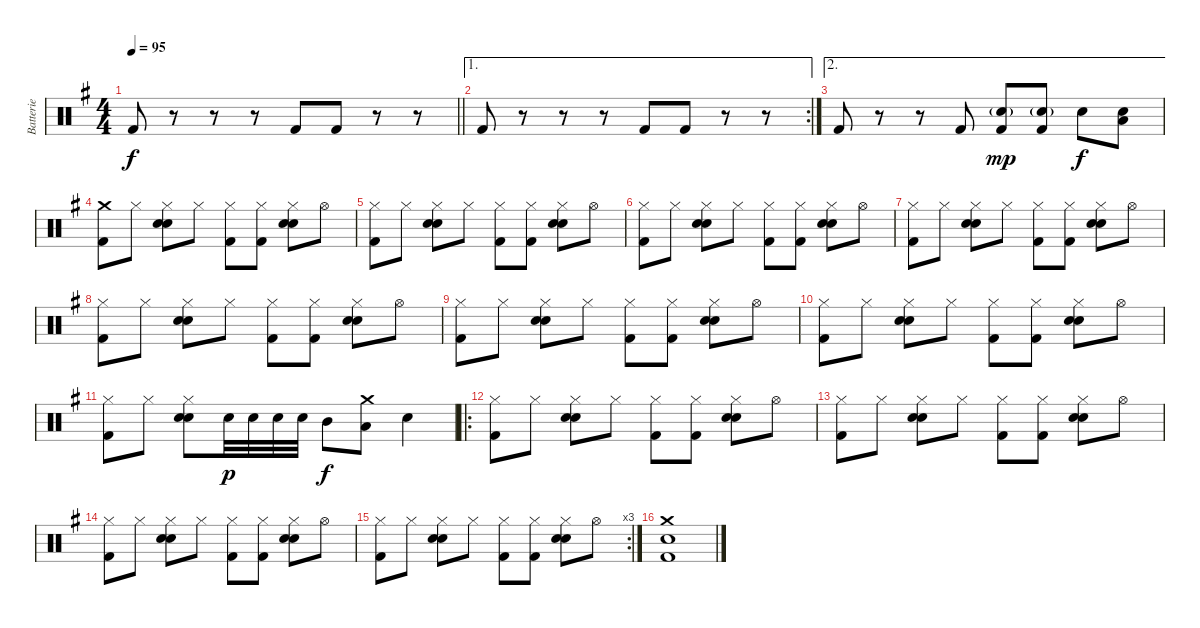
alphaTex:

\track ("Batterie" "Batterie") {instrument percussion}
\staff {score}
\articulation defaults
\ts (4 4)
\tempo 95
\clef neutral
\barLineRight lightlight
\ks g "Kick (hit) 2".8{dy f}
r.8 r.8 r.8 "Kick (hit) 2".8 "Kick (hit) 2".8 r.8 r.8 |
\ae 1
\rc 2 "Kick (hit) 2".8
r.8 r.8 r.8 "Kick (hit) 2".8 "Kick (hit) 2".8 r.8 r.8 |
\ae 2 "Kick (hit) 2".8
r.8 r.8 "Kick (hit) 2".8 ("Snare (hit) 2"{g} "Kick (hit) 2").8{dy mp} ("Snare (hit) 2"{g} "Kick (hit) 2").8 "Snare (hit) 2".8{dy f} ("Low Tom (hit)" "Snare (hit) 2").8 |
("Crash medium (hit)" "Kick (hit) 2").8 "Hi-Hat (closed)".8 ("Hi-Hat (closed)" "Hand Clap (hit)" "Snare (hit) 2").8 "Hi-Hat (closed)".8 ("Hi-Hat (closed)" "Kick (hit) 2").8 ("Hi-Hat (closed)" "Kick (hit) 2").8 ("Hi-Hat (closed)" "Hand Clap (hit)" "Snare (hit) 2").8 "Hi-Hat (open)".8 |
("Hi-Hat (closed)" "Kick (hit) 2").8 "Hi-Hat (closed)".8 ("Hi-Hat (closed)" "Hand Clap (hit)" "Snare (hit) 2").8 "Hi-Hat (closed)".8 ("Hi-Hat (closed)" "Kick (hit) 2").8 ("Hi-Hat (closed)" "Kick (hit) 2").8 ("Hi-Hat (closed)" "Hand Clap (hit)" "Snare (hit) 2").8 "Hi-Hat (open)".8 |
("Hi-Hat (closed)" "Kick (hit) 2").8 "Hi-Hat (closed)".8 ("Hi-Hat (closed)" "Hand Clap (hit)" "Snare (hit) 2").8 "Hi-Hat (closed)".8 ("Hi-Hat (closed)" "Kick (hit) 2").8 ("Hi-Hat (closed)" "Kick (hit) 2").8 ("Hi-Hat (closed)" "Hand Clap (hit)" "Snare (hit) 2").8 "Hi-Hat (open)".8 |
("Hi-Hat (closed)" "Kick (hit) 2").8 "Hi-Hat (closed)".8 ("Hi-Hat (closed)" "Hand Clap (hit)" "Snare (hit) 2").8 "Hi-Hat (closed)".8 ("Hi-Hat (closed)" "Kick (hit) 2").8 ("Hi-Hat (closed)" "Kick (hit) 2").8 ("Hi-Hat (closed)" "Hand Clap (hit)" "Snare (hit) 2").8 "Hi-Hat (open)".8 |
("Hi-Hat (closed)" "Kick (hit) 2").8 "Hi-Hat (closed)".8 ("Hi-Hat (closed)" "Hand Clap (hit)" "Snare (hit) 2").8 "Hi-Hat (closed)".8 ("Hi-Hat (closed)" "Kick (hit) 2").8 ("Hi-Hat (closed)" "Kick (hit) 2").8 ("Hi-Hat (closed)" "Hand Clap (hit)" "Snare (hit) 2").8 "Hi-Hat (open)".8 |
("Hi-Hat (closed)" "Kick (hit) 2").8 "Hi-Hat (closed)".8 ("Hi-Hat (closed)" "Hand Clap (hit)" "Snare (hit) 2").8 "Hi-Hat (closed)".8 ("Hi-Hat (closed)" "Kick (hit) 2").8 ("Hi-Hat (closed)" "Kick (hit) 2").8 ("Hi-Hat (closed)" "Hand Clap (hit)" "Snare (hit) 2").8 "Hi-Hat (open)".8 |
("Hi-Hat (closed)" "Kick (hit) 2").8 "Hi-Hat (closed)".8 ("Hi-Hat (closed)" "Hand Clap (hit)" "Snare (hit) 2").8 "Hi-Hat (closed)".8 ("Hi-Hat (closed)" "Kick (hit) 2").8 ("Hi-Hat (closed)" "Kick (hit) 2").8 ("Hi-Hat (closed)" "Hand Clap (hit)" "Snare (hit) 2").8 "Hi-Hat (open)".8 |
("Hi-Hat (closed)" "Kick (hit) 2").8 "Hi-Hat (closed)".8 ("Hi-Hat (closed)" "Hand Clap (hit)" "Snare (hit) 2").8 "Snare (hit) 2".32{dy p} "Snare (hit) 2".32 "Snare (hit) 2".32 "Snare (hit) 2".32 "Mid Tom (hit)".8{dy f} ("Crash medium (hit)" "Low Tom (hit)").8 "Snare (hit) 2".4 |
\ro
("Hi-Hat (closed)" "Kick (hit) 2").8 "Hi-Hat (closed)".8 ("Hi-Hat (closed)" "Hand Clap (hit)" "Snare (hit) 2").8 "Hi-Hat (closed)".8 ("Hi-Hat (closed)" "Kick (hit) 2").8 ("Hi-Hat (closed)" "Kick (hit) 2").8 ("Hi-Hat (closed)" "Hand Clap (hit)" "Snare (hit) 2").8 "Hi-Hat (open)".8 |
("Hi-Hat (closed)" "Kick (hit) 2").8 "Hi-Hat (closed)".8 ("Hi-Hat (closed)" "Hand Clap (hit)" "Snare (hit) 2").8 "Hi-Hat (closed)".8 ("Hi-Hat (closed)" "Kick (hit) 2").8 ("Hi-Hat (closed)" "Kick (hit) 2").8 ("Hi-Hat (closed)" "Hand Clap (hit)" "Snare (hit) 2").8 "Hi-Hat (open)".8 |
("Hi-Hat (closed)" "Kick (hit) 2").8 "Hi-Hat (closed)".8 ("Hi-Hat (closed)" "Hand Clap (hit)" "Snare (hit) 2").8 "Hi-Hat (closed)".8 ("Hi-Hat (closed)" "Kick (hit) 2").8 ("Hi-Hat (closed)" "Kick (hit) 2").8 ("Hi-Hat (closed)" "Hand Clap (hit)" "Snare (hit) 2").8 "Hi-Hat (open)".8 |
\rc 3
("Hi-Hat (closed)" "Kick (hit) 2").8 "Hi-Hat (closed)".8 ("Hi-Hat (closed)" "Hand Clap (hit)" "Snare (hit) 2").8 "Hi-Hat (closed)".8 ("Hi-Hat (closed)" "Kick (hit) 2").8 ("Hi-Hat (closed)" "Kick (hit) 2").8 ("Hi-Hat (closed)" "Hand Clap (hit)" "Snare (hit) 2").8 "Hi-Hat (open)".8 |
("Crash medium (hit)" "Snare (hit) 2" "Kick (hit) 2").1
